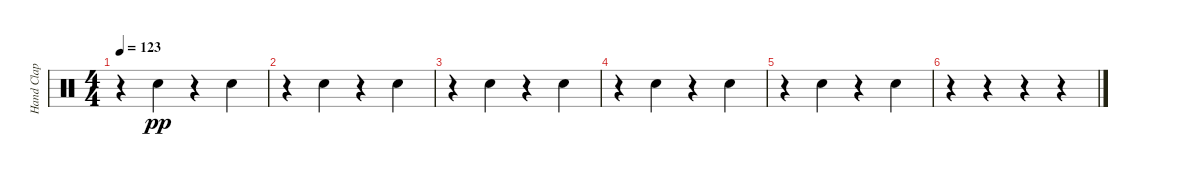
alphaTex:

\track ("Hand Clap" "Hand Clap") {instrument percussion}
\staff {score}
\articulation defaults
\ts (4 4)
\tempo 123
\clef neutral
\ks c
r.4{dy pp} "Hand Clap (hit)".4 r.4 "Hand Clap (hit)".4 |
r.4 "Hand Clap (hit)".4 r.4 "Hand Clap (hit)".4 |
r.4 "Hand Clap (hit)".4 r.4 "Hand Clap (hit)".4 |
r.4 "Hand Clap (hit)".4 r.4 "Hand Clap (hit)".4 |
r.4 "Hand Clap (hit)".4 r.4 "Hand Clap (hit)".4 |
r.4 r.4 r.4 r.4
